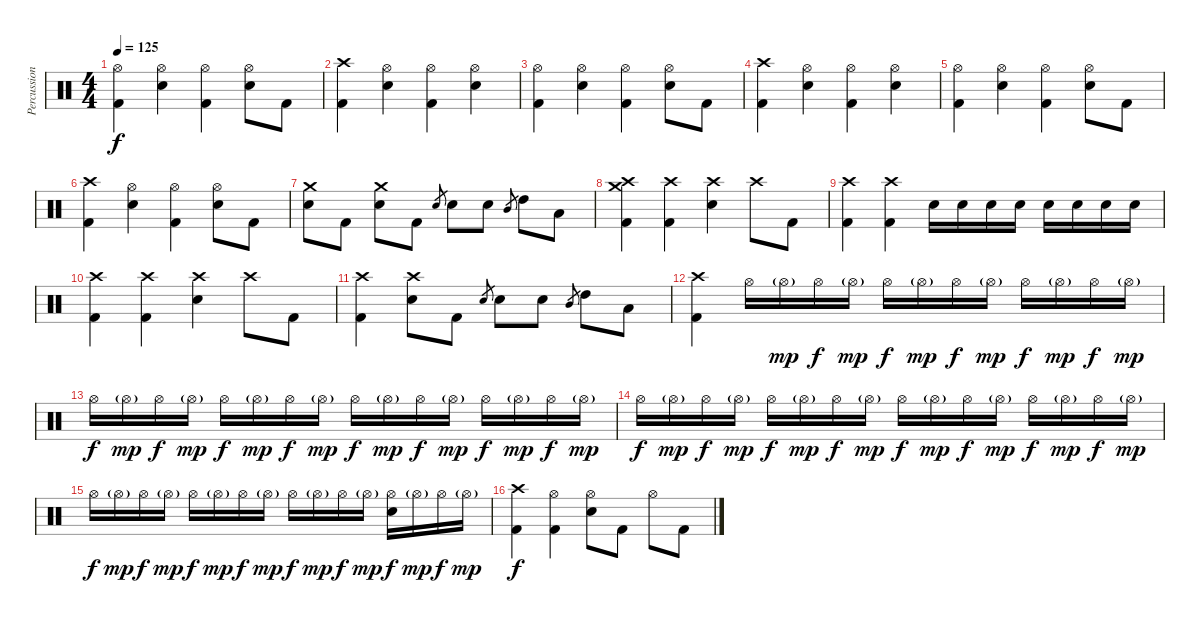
\track ("Percussion" "Percussion") {instrument percussion}
\staff {score}
\articulation defaults
\ts (4 4)
\tempo 125
\clef neutral
\ks c
("Hi-Hat (open)" "Kick (hit) 2").4{dy f} ("Hi-Hat (open)" "Electric Snare (hit)").4 ("Hi-Hat (open)" "Kick (hit) 2").4 ("Hi-Hat (open)" "Electric Snare (hit)").8 "Kick (hit) 2".8 |
("Crash high (hit)" "Kick (hit) 2").4 ("Hi-Hat (open)" "Electric Snare (hit)").4 ("Hi-Hat (open)" "Kick (hit) 2").4 ("Hi-Hat (open)" "Electric Snare (hit)").4 |
("Hi-Hat (open)" "Kick (hit) 2").4 ("Hi-Hat (open)" "Electric Snare (hit)").4 ("Hi-Hat (open)" "Kick (hit) 2").4 ("Hi-Hat (open)" "Electric Snare (hit)").8 "Kick (hit) 2".8 |
("Crash high (hit)" "Kick (hit) 2").4 ("Hi-Hat (open)" "Electric Snare (hit)").4 ("Hi-Hat (open)" "Kick (hit) 2").4 ("Hi-Hat (open)" "Electric Snare (hit)").4 |
("Hi-Hat (open)" "Kick (hit) 2").4 ("Hi-Hat (open)" "Electric Snare (hit)").4 ("Hi-Hat (open)" "Kick (hit) 2").4 ("Hi-Hat (open)" "Electric Snare (hit)").8 "Kick (hit) 2".8 |
("Crash high (hit)" "Kick (hit) 2").4 ("Hi-Hat (open)" "Electric Snare (hit)").4 ("Hi-Hat (open)" "Kick (hit) 2").4 ("Hi-Hat (open)" "Electric Snare (hit)").8 "Kick (hit) 2".8 |
("Crash medium (hit)" "Electric Snare (hit)").8 "Kick (hit) 2".8 ("Crash medium (hit)" "Electric Snare (hit)").8 "Kick (hit) 2".8 "Electric Snare (hit)".8{gr} "Electric Snare (hit)".8 "Electric Snare (hit)".8 "Mid Tom (hit)".8{gr} "High Tom (hit)".8 "Low Tom (hit)".8 |
("Crash high (hit)" "Crash medium (hit)" "Kick (hit) 2").4 ("Crash high (hit)" "Kick (hit) 2").4 ("Crash high (hit)" "Electric Snare (hit)").4 "Crash high (hit)".8 "Kick (hit) 2".8 |
("Crash high (hit)" "Kick (hit) 2").4 ("Crash high (hit)" "Kick (hit) 2").4 "Electric Snare (hit)".16 "Electric Snare (hit)".16 "Electric Snare (hit)".16 "Electric Snare (hit)".16 "Electric Snare (hit)".16 "Electric Snare (hit)".16 "Electric Snare (hit)".16 "Electric Snare (hit)".16 |
("Crash high (hit)" "Kick (hit) 2").4 ("Crash high (hit)" "Kick (hit) 2").4 ("Crash high (hit)" "Electric Snare (hit)").4 "Crash high (hit)".8 "Kick (hit) 2".8 |
("Crash high (hit)" "Kick (hit) 2").4 ("Crash high (hit)" "Electric Snare (hit)").8 "Kick (hit) 2".8 "Electric Snare (hit)".8{gr} "Electric Snare (hit)".8 "Electric Snare (hit)".8 "Mid Tom (hit)".8{gr} "High Tom (hit)".8 "Low Tom (hit)".8 |
("Crash high (hit)" "Kick (hit) 2").4 "Hi-Hat (open)".16 "Hi-Hat (open)"{g}.16{dy mp} "Hi-Hat (open)".16{dy f} "Hi-Hat (open)"{g}.16{dy mp} "Hi-Hat (open)".16{dy f} "Hi-Hat (open)"{g}.16{dy mp} "Hi-Hat (open)".16{dy f} "Hi-Hat (open)"{g}.16{dy mp} "Hi-Hat (open)".16{dy f} "Hi-Hat (open)"{g}.16{dy mp} "Hi-Hat (open)".16{dy f} "Hi-Hat (open)"{g}.16{dy mp} |
"Hi-Hat (open)".16{dy f} "Hi-Hat (open)"{g}.16{dy mp} "Hi-Hat (open)".16{dy f} "Hi-Hat (open)"{g}.16{dy mp} "Hi-Hat (open)".16{dy f} "Hi-Hat (open)"{g}.16{dy mp} "Hi-Hat (open)".16{dy f} "Hi-Hat (open)"{g}.16{dy mp} "Hi-Hat (open)".16{dy f} "Hi-Hat (open)"{g}.16{dy mp} "Hi-Hat (open)".16{dy f} "Hi-Hat (open)"{g}.16{dy mp} "Hi-Hat (open)".16{dy f} "Hi-Hat (open)"{g}.16{dy mp} "Hi-Hat (open)".16{dy f} "Hi-Hat (open)"{g}.16{dy mp} |
"Hi-Hat (open)".16{dy f} "Hi-Hat (open)"{g}.16{dy mp} "Hi-Hat (open)".16{dy f} "Hi-Hat (open)"{g}.16{dy mp} "Hi-Hat (open)".16{dy f} "Hi-Hat (open)"{g}.16{dy mp} "Hi-Hat (open)".16{dy f} "Hi-Hat (open)"{g}.16{dy mp} "Hi-Hat (open)".16{dy f} "Hi-Hat (open)"{g}.16{dy mp} "Hi-Hat (open)".16{dy f} "Hi-Hat (open)"{g}.16{dy mp} "Hi-Hat (open)".16{dy f} "Hi-Hat (open)"{g}.16{dy mp} "Hi-Hat (open)".16{dy f} "Hi-Hat (open)"{g}.16{dy mp} |
"Hi-Hat (open)".16{dy f} "Hi-Hat (open)"{g}.16{dy mp} "Hi-Hat (open)".16{dy f} "Hi-Hat (open)"{g}.16{dy mp} "Hi-Hat (open)".16{dy f} "Hi-Hat (open)"{g}.16{dy mp} "Hi-Hat (open)".16{dy f} "Hi-Hat (open)"{g}.16{dy mp} "Hi-Hat (open)".16{dy f} "Hi-Hat (open)"{g}.16{dy mp} "Hi-Hat (open)".16{dy f} "Hi-Hat (open)"{g}.16{dy mp} ("Hi-Hat (open)" "Electric Snare (hit)").16{dy f} "Hi-Hat (open)"{g}.16{dy mp} "Hi-Hat (open)".16{dy f} "Hi-Hat (open)"{g}.16{dy mp} |
("Crash high (hit)" "Kick (hit) 2").4{dy f} ("Hi-Hat (open)" "Kick (hit) 2").4 ("Hi-Hat (open)" "Electric Snare (hit)").8 "Kick (hit) 2".8 "Hi-Hat (open)".8 "Kick (hit) 2".8
